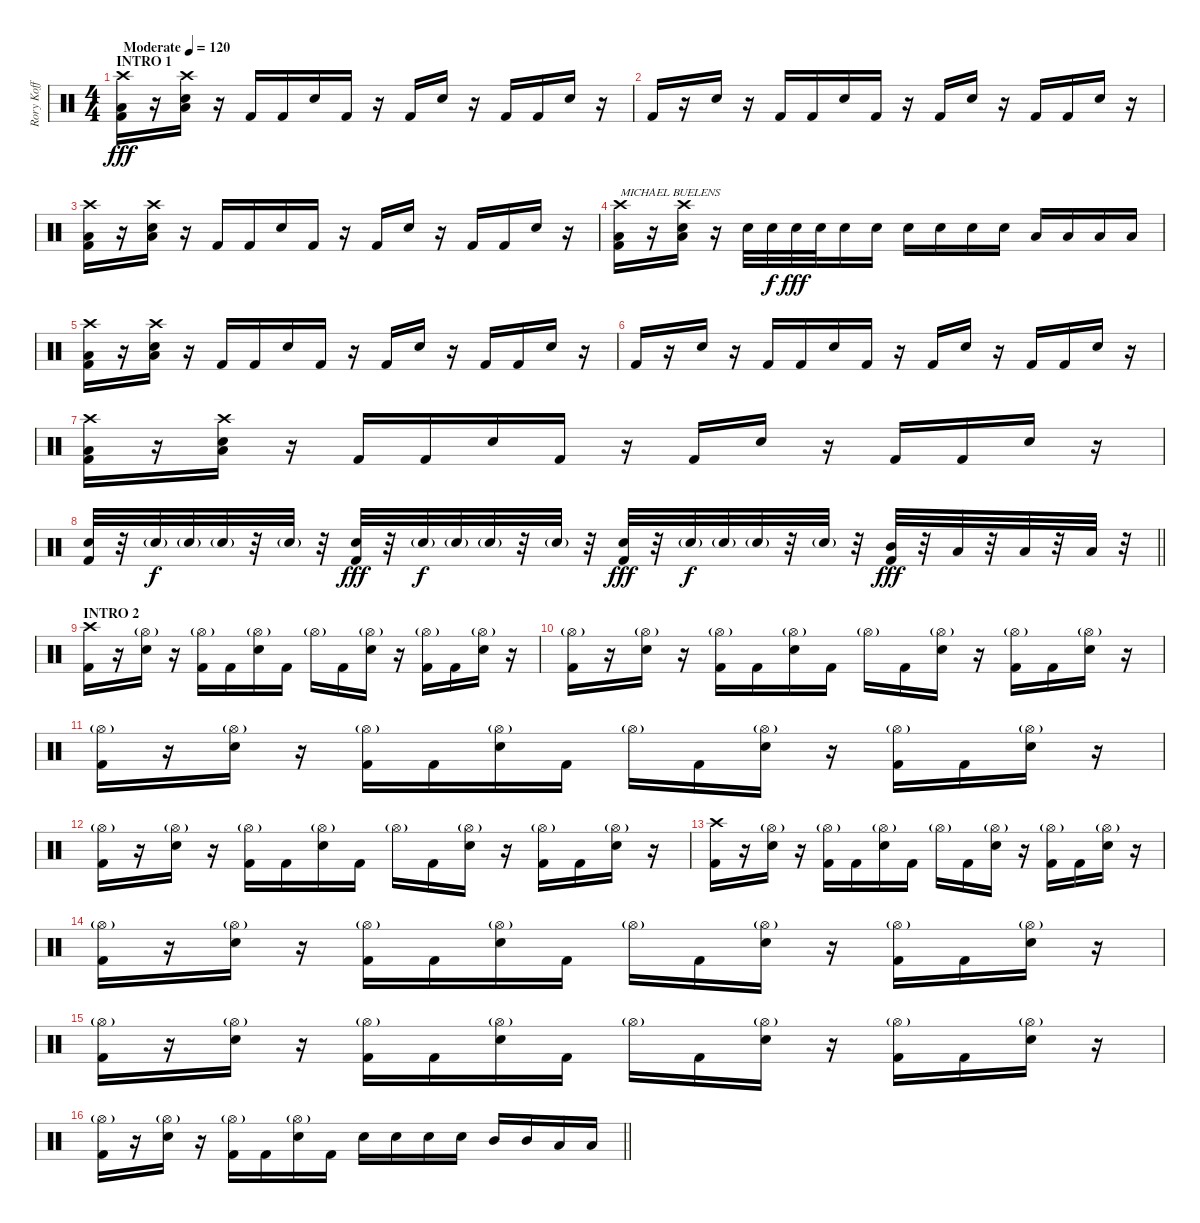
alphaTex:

\track ("Rory Koff" "Rory Koff") {instrument percussion}
\staff {score}
\articulation defaults
\ts (4 4)
\section ("" "INTRO 1")
\tempo (120 "Moderate")
\clef neutral
\ks c
("Crash high (hit)" "Low Floor Tom (hit)" "Kick (hit) 2").16{dy fff} r.16 ("Crash high (hit)" "Low Floor Tom (hit)" "Snare (hit) 2").16 r.16 "Kick (hit) 2".16 "Kick (hit) 2".16 "Snare (hit) 2".16 "Kick (hit) 2".16 r.16 "Kick (hit) 2".16 "Snare (hit) 2".16 r.16 "Kick (hit) 2".16 "Kick (hit) 2".16 "Snare (hit) 2".16 r.16 |
"Kick (hit) 2".16 r.16 "Snare (hit) 2".16 r.16 "Kick (hit) 2".16 "Kick (hit) 2".16 "Snare (hit) 2".16 "Kick (hit) 2".16 r.16 "Kick (hit) 2".16 "Snare (hit) 2".16 r.16 "Kick (hit) 2".16 "Kick (hit) 2".16 "Snare (hit) 2".16 r.16 |
("Crash high (hit)" "Low Floor Tom (hit)" "Kick (hit) 2").16 r.16 ("Crash high (hit)" "Low Floor Tom (hit)" "Snare (hit) 2").16 r.16 "Kick (hit) 2".16 "Kick (hit) 2".16 "Snare (hit) 2".16 "Kick (hit) 2".16 r.16 "Kick (hit) 2".16 "Snare (hit) 2".16 r.16 "Kick (hit) 2".16 "Kick (hit) 2".16 "Snare (hit) 2".16 r.16 |
("Crash high (hit)" "Low Floor Tom (hit)" "Kick (hit) 2").16{txt "MICHAEL BUELENS"} r.16 ("Crash high (hit)" "Low Floor Tom (hit)" "Snare (hit) 2").16 r.16 "Snare (hit) 2".32 "Snare (hit) 2".32{dy f} "Snare (hit) 2".32{dy fff} "Snare (hit) 2".32 "Snare (hit) 2".16 "Snare (hit) 2".16 "Snare (hit) 2".16 "Snare (hit) 2".16 "Snare (hit) 2".16 "Snare (hit) 2".16 "Low Tom (hit)".16 "Low Tom (hit)".16 "Low Floor Tom (hit)".16 "Low Floor Tom (hit)".16 |
("Crash high (hit)" "Low Floor Tom (hit)" "Kick (hit) 2").16 r.16 ("Crash high (hit)" "Low Floor Tom (hit)" "Snare (hit) 2").16 r.16 "Kick (hit) 2".16 "Kick (hit) 2".16 "Snare (hit) 2".16 "Kick (hit) 2".16 r.16 "Kick (hit) 2".16 "Snare (hit) 2".16 r.16 "Kick (hit) 2".16 "Kick (hit) 2".16 "Snare (hit) 2".16 r.16 |
"Kick (hit) 2".16 r.16 "Snare (hit) 2".16 r.16 "Kick (hit) 2".16 "Kick (hit) 2".16 "Snare (hit) 2".16 "Kick (hit) 2".16 r.16 "Kick (hit) 2".16 "Snare (hit) 2".16 r.16 "Kick (hit) 2".16 "Kick (hit) 2".16 "Snare (hit) 2".16 r.16 |
("Crash high (hit)" "Low Floor Tom (hit)" "Kick (hit) 2").16 r.16 ("Crash high (hit)" "Low Floor Tom (hit)" "Snare (hit) 2").16 r.16 "Kick (hit) 2".16 "Kick (hit) 2".16 "Snare (hit) 2".16 "Kick (hit) 2".16 r.16 "Kick (hit) 2".16 "Snare (hit) 2".16 r.16 "Kick (hit) 2".16 "Kick (hit) 2".16 "Snare (hit) 2".16 r.16 |
\barLineRight lightlight
("Snare (hit) 2" "Kick (hit) 2").32 r.32 "Snare (hit) 2"{g}.32{dy f} "Snare (hit) 2"{g}.32 "Snare (hit) 2"{g}.32 r.32 "Snare (hit) 2"{g}.32 r.32 ("Snare (hit) 2" "Kick (hit) 2").32{dy fff} r.32 "Snare (hit) 2"{g}.32{dy f} "Snare (hit) 2"{g}.32 "Snare (hit) 2"{g}.32 r.32 "Snare (hit) 2"{g}.32 r.32 ("Snare (hit) 2" "Kick (hit) 2").32{dy fff} r.32 "Snare (hit) 2"{g}.32{dy f} "Snare (hit) 2"{g}.32 "Snare (hit) 2"{g}.32 r.32 "Snare (hit) 2"{g}.32 r.32 ("Mid Tom (hit)" "Kick (hit) 2").32{dy fff} r.32 "Low Tom (hit)".32 r.32 "Low Tom (hit)".32 r.32 "Low Floor Tom (hit)".32 r.32 |
\section ("" "INTRO 2")
("Crash high (hit)" "Kick (hit) 2").16 r.16 ("Hi-Hat (open)"{g} "Snare (hit) 2").16 r.16 ("Hi-Hat (open)"{g} "Kick (hit) 2").16 "Kick (hit) 2".16 ("Hi-Hat (open)"{g} "Snare (hit) 2").16 "Kick (hit) 2".16 "Hi-Hat (open)"{g}.16 "Kick (hit) 2".16 ("Hi-Hat (open)"{g} "Snare (hit) 2").16 r.16 ("Hi-Hat (open)"{g} "Kick (hit) 2").16 "Kick (hit) 2".16 ("Hi-Hat (open)"{g} "Snare (hit) 2").16 r.16 |
("Hi-Hat (open)"{g} "Kick (hit) 2").16 r.16 ("Hi-Hat (open)"{g} "Snare (hit) 2").16 r.16 ("Hi-Hat (open)"{g} "Kick (hit) 2").16 "Kick (hit) 2".16 ("Hi-Hat (open)"{g} "Snare (hit) 2").16 "Kick (hit) 2".16 "Hi-Hat (open)"{g}.16 "Kick (hit) 2".16 ("Hi-Hat (open)"{g} "Snare (hit) 2").16 r.16 ("Hi-Hat (open)"{g} "Kick (hit) 2").16 "Kick (hit) 2".16 ("Hi-Hat (open)"{g} "Snare (hit) 2").16 r.16 |
("Hi-Hat (open)"{g} "Kick (hit) 2").16 r.16 ("Hi-Hat (open)"{g} "Snare (hit) 2").16 r.16 ("Hi-Hat (open)"{g} "Kick (hit) 2").16 "Kick (hit) 2".16 ("Hi-Hat (open)"{g} "Snare (hit) 2").16 "Kick (hit) 2".16 "Hi-Hat (open)"{g}.16 "Kick (hit) 2".16 ("Hi-Hat (open)"{g} "Snare (hit) 2").16 r.16 ("Hi-Hat (open)"{g} "Kick (hit) 2").16 "Kick (hit) 2".16 ("Hi-Hat (open)"{g} "Snare (hit) 2").16 r.16 |
("Hi-Hat (open)"{g} "Kick (hit) 2").16 r.16 ("Hi-Hat (open)"{g} "Snare (hit) 2").16 r.16 ("Hi-Hat (open)"{g} "Kick (hit) 2").16 "Kick (hit) 2".16 ("Hi-Hat (open)"{g} "Snare (hit) 2").16 "Kick (hit) 2".16 "Hi-Hat (open)"{g}.16 "Kick (hit) 2".16 ("Hi-Hat (open)"{g} "Snare (hit) 2").16 r.16 ("Hi-Hat (open)"{g} "Kick (hit) 2").16 "Kick (hit) 2".16 ("Hi-Hat (open)"{g} "Snare (hit) 2").16 r.16 |
("Crash high (hit)" "Kick (hit) 2").16 r.16 ("Hi-Hat (open)"{g} "Snare (hit) 2").16 r.16 ("Hi-Hat (open)"{g} "Kick (hit) 2").16 "Kick (hit) 2".16 ("Hi-Hat (open)"{g} "Snare (hit) 2").16 "Kick (hit) 2".16 "Hi-Hat (open)"{g}.16 "Kick (hit) 2".16 ("Hi-Hat (open)"{g} "Snare (hit) 2").16 r.16 ("Hi-Hat (open)"{g} "Kick (hit) 2").16 "Kick (hit) 2".16 ("Hi-Hat (open)"{g} "Snare (hit) 2").16 r.16 |
("Hi-Hat (open)"{g} "Kick (hit) 2").16 r.16 ("Hi-Hat (open)"{g} "Snare (hit) 2").16 r.16 ("Hi-Hat (open)"{g} "Kick (hit) 2").16 "Kick (hit) 2".16 ("Hi-Hat (open)"{g} "Snare (hit) 2").16 "Kick (hit) 2".16 "Hi-Hat (open)"{g}.16 "Kick (hit) 2".16 ("Hi-Hat (open)"{g} "Snare (hit) 2").16 r.16 ("Hi-Hat (open)"{g} "Kick (hit) 2").16 "Kick (hit) 2".16 ("Hi-Hat (open)"{g} "Snare (hit) 2").16 r.16 |
("Hi-Hat (open)"{g} "Kick (hit) 2").16 r.16 ("Hi-Hat (open)"{g} "Snare (hit) 2").16 r.16 ("Hi-Hat (open)"{g} "Kick (hit) 2").16 "Kick (hit) 2".16 ("Hi-Hat (open)"{g} "Snare (hit) 2").16 "Kick (hit) 2".16 "Hi-Hat (open)"{g}.16 "Kick (hit) 2".16 ("Hi-Hat (open)"{g} "Snare (hit) 2").16 r.16 ("Hi-Hat (open)"{g} "Kick (hit) 2").16 "Kick (hit) 2".16 ("Hi-Hat (open)"{g} "Snare (hit) 2").16 r.16 |
\barLineRight lightlight
("Hi-Hat (open)"{g} "Kick (hit) 2").16 r.16 ("Hi-Hat (open)"{g} "Snare (hit) 2").16 r.16 ("Hi-Hat (open)"{g} "Kick (hit) 2").16 "Kick (hit) 2".16 ("Hi-Hat (open)"{g} "Snare (hit) 2").16 "Kick (hit) 2".16 "Snare (hit) 2".16 "Snare (hit) 2".16 "Snare (hit) 2".16 "Snare (hit) 2".16 "Mid Tom (hit)".16 "Mid Tom (hit)".16 "Low Tom (hit)".16 "Low Floor Tom (hit)".16
